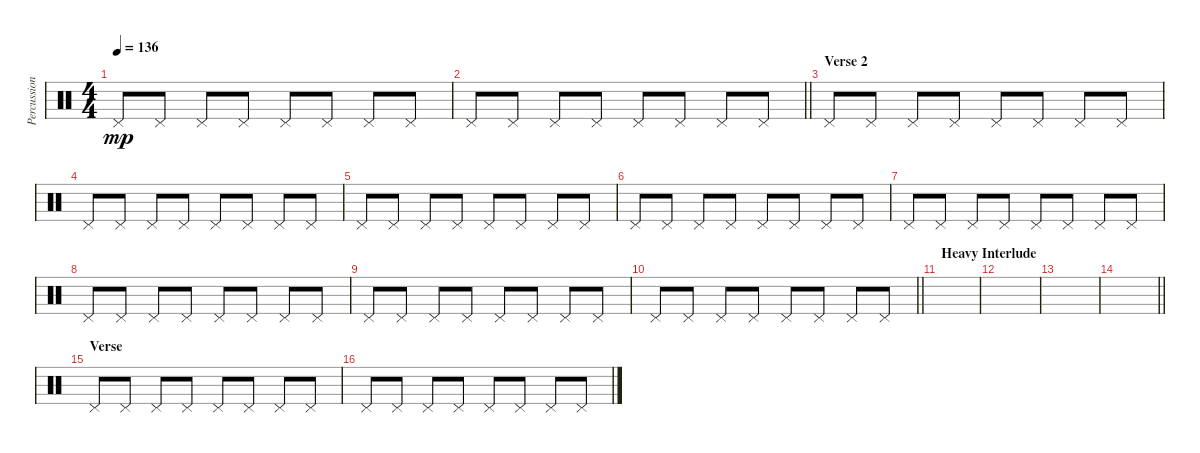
\track ("Percussion" "Percussion") {instrument percussion}
\staff {score}
\articulation defaults
\ts (4 4)
\tempo 136
\clef neutral
\ks c "Pedal Hi-Hat (hit)".8{dy mp} "Pedal Hi-Hat (hit)".8 "Pedal Hi-Hat (hit)".8 "Pedal Hi-Hat (hit)".8 "Pedal Hi-Hat (hit)".8 "Pedal Hi-Hat (hit)".8 "Pedal Hi-Hat (hit)".8 "Pedal Hi-Hat (hit)".8
|
\barLineRight lightlight "Pedal Hi-Hat (hit)".8 "Pedal Hi-Hat (hit)".8 "Pedal Hi-Hat (hit)".8 "Pedal Hi-Hat (hit)".8 "Pedal Hi-Hat (hit)".8 "Pedal Hi-Hat (hit)".8 "Pedal Hi-Hat (hit)".8 "Pedal Hi-Hat (hit)".8
|
\section ("" "Verse 2")
"Pedal Hi-Hat (hit)".8 "Pedal Hi-Hat (hit)".8 "Pedal Hi-Hat (hit)".8 "Pedal Hi-Hat (hit)".8 "Pedal Hi-Hat (hit)".8 "Pedal Hi-Hat (hit)".8 "Pedal Hi-Hat (hit)".8 "Pedal Hi-Hat (hit)".8 |
"Pedal Hi-Hat (hit)".8 "Pedal Hi-Hat (hit)".8 "Pedal Hi-Hat (hit)".8 "Pedal Hi-Hat (hit)".8 "Pedal Hi-Hat (hit)".8 "Pedal Hi-Hat (hit)".8 "Pedal Hi-Hat (hit)".8 "Pedal Hi-Hat (hit)".8 |
"Pedal Hi-Hat (hit)".8 "Pedal Hi-Hat (hit)".8 "Pedal Hi-Hat (hit)".8 "Pedal Hi-Hat (hit)".8 "Pedal Hi-Hat (hit)".8 "Pedal Hi-Hat (hit)".8 "Pedal Hi-Hat (hit)".8 "Pedal Hi-Hat (hit)".8 |
"Pedal Hi-Hat (hit)".8 "Pedal Hi-Hat (hit)".8 "Pedal Hi-Hat (hit)".8 "Pedal Hi-Hat (hit)".8 "Pedal Hi-Hat (hit)".8 "Pedal Hi-Hat (hit)".8 "Pedal Hi-Hat (hit)".8 "Pedal Hi-Hat (hit)".8 |
"Pedal Hi-Hat (hit)".8 "Pedal Hi-Hat (hit)".8 "Pedal Hi-Hat (hit)".8 "Pedal Hi-Hat (hit)".8 "Pedal Hi-Hat (hit)".8 "Pedal Hi-Hat (hit)".8 "Pedal Hi-Hat (hit)".8 "Pedal Hi-Hat (hit)".8 |
"Pedal Hi-Hat (hit)".8 "Pedal Hi-Hat (hit)".8 "Pedal Hi-Hat (hit)".8 "Pedal Hi-Hat (hit)".8 "Pedal Hi-Hat (hit)".8 "Pedal Hi-Hat (hit)".8 "Pedal Hi-Hat (hit)".8 "Pedal Hi-Hat (hit)".8 |
"Pedal Hi-Hat (hit)".8 "Pedal Hi-Hat (hit)".8 "Pedal Hi-Hat (hit)".8 "Pedal Hi-Hat (hit)".8 "Pedal Hi-Hat (hit)".8 "Pedal Hi-Hat (hit)".8 "Pedal Hi-Hat (hit)".8 "Pedal Hi-Hat (hit)".8 |
\barLineRight lightlight "Pedal Hi-Hat (hit)".8 "Pedal Hi-Hat (hit)".8 "Pedal Hi-Hat (hit)".8 "Pedal Hi-Hat (hit)".8 "Pedal Hi-Hat (hit)".8 "Pedal Hi-Hat (hit)".8 "Pedal Hi-Hat (hit)".8 "Pedal Hi-Hat (hit)".8
|
\section ("" "Heavy Interlude")
|
|
|
\barLineRight lightlight
|
\section ("" "Verse")
"Pedal Hi-Hat (hit)".8 "Pedal Hi-Hat (hit)".8 "Pedal Hi-Hat (hit)".8 "Pedal Hi-Hat (hit)".8 "Pedal Hi-Hat (hit)".8 "Pedal Hi-Hat (hit)".8 "Pedal Hi-Hat (hit)".8 "Pedal Hi-Hat (hit)".8 |
"Pedal Hi-Hat (hit)".8 "Pedal Hi-Hat (hit)".8 "Pedal Hi-Hat (hit)".8 "Pedal Hi-Hat (hit)".8 "Pedal Hi-Hat (hit)".8 "Pedal Hi-Hat (hit)".8 "Pedal Hi-Hat (hit)".8 "Pedal Hi-Hat (hit)".8
